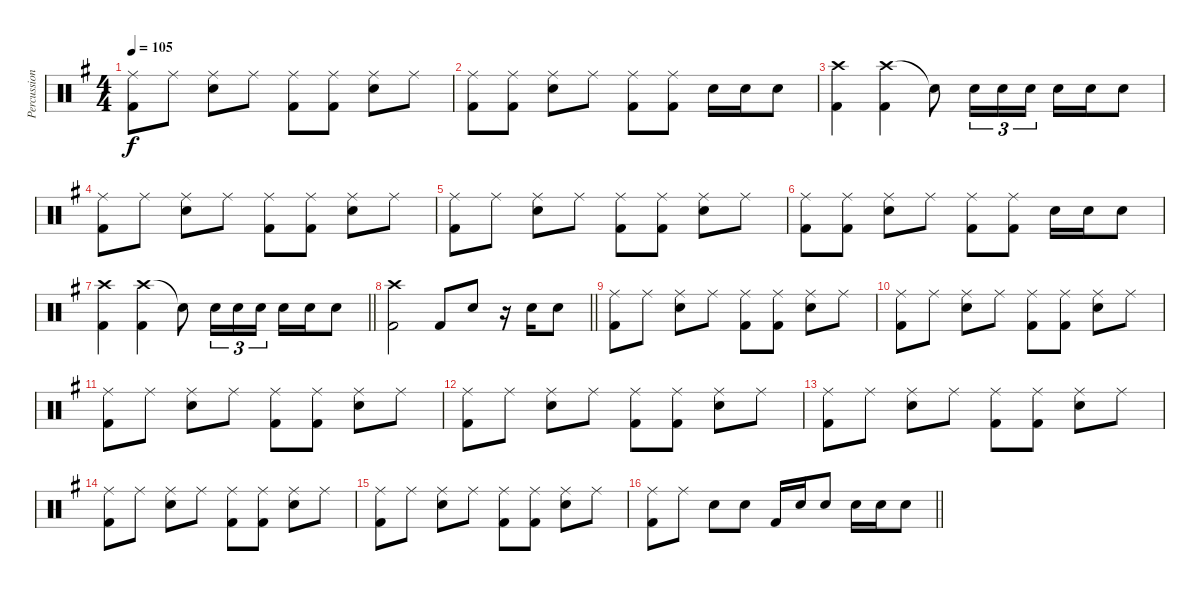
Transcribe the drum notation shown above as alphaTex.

\track ("Percussion" "Percussion") {instrument percussion}
\staff {score}
\articulation defaults
\ts (4 4)
\tempo 105
\clef neutral
\ks g
("Ride (middle)" "Kick (hit) 2").8{dy f} "Ride (middle)".8 ("Ride (middle)" "Snare (hit) 2").8 "Ride (middle)".8 ("Ride (middle)" "Kick (hit) 2").8 ("Ride (middle)" "Kick (hit) 2").8 ("Ride (middle)" "Snare (hit) 2").8 "Ride (middle)".8 |
("Ride (middle)" "Kick (hit) 2").8 ("Ride (middle)" "Kick (hit) 2").8 ("Ride (middle)" "Snare (hit) 2").8 "Ride (middle)".8 ("Ride (middle)" "Kick (hit) 2").8 ("Ride (middle)" "Kick (hit) 2").8 "Snare (hit) 2".16 "Snare (hit) 2".16 "Snare (hit) 2".8 |
("Crash high (hit)" "Kick (hit) 2").4 ("Crash high (hit)" "Kick (hit) 2").4 "Snare (hit)"{t}.8 "Snare (hit) 2".16{tu (3 2)} "Snare (hit) 2".16{tu (3 2)} "Snare (hit) 2".16{tu (3 2)} "Snare (hit) 2".16 "Snare (hit) 2".16 "Snare (hit) 2".8 |
("Ride (middle)" "Kick (hit) 2").8 "Ride (middle)".8 ("Ride (middle)" "Snare (hit) 2").8 "Ride (middle)".8 ("Ride (middle)" "Kick (hit) 2").8 ("Ride (middle)" "Kick (hit) 2").8 ("Ride (middle)" "Snare (hit) 2").8 "Ride (middle)".8 |
("Ride (middle)" "Kick (hit) 2").8 "Ride (middle)".8 ("Ride (middle)" "Snare (hit) 2").8 "Ride (middle)".8 ("Ride (middle)" "Kick (hit) 2").8 ("Ride (middle)" "Kick (hit) 2").8 ("Ride (middle)" "Snare (hit) 2").8 "Ride (middle)".8 |
("Ride (middle)" "Kick (hit) 2").8 ("Ride (middle)" "Kick (hit) 2").8 ("Ride (middle)" "Snare (hit) 2").8 "Ride (middle)".8 ("Ride (middle)" "Kick (hit) 2").8 ("Ride (middle)" "Kick (hit) 2").8 "Snare (hit) 2".16 "Snare (hit) 2".16 "Snare (hit) 2".8 |
\barLineRight lightlight
("Crash high (hit)" "Kick (hit) 2").4 ("Crash high (hit)" "Kick (hit) 2").4 "Snare (hit)"{t}.8 "Snare (hit) 2".16{tu (3 2)} "Snare (hit) 2".16{tu (3 2)} "Snare (hit) 2".16{tu (3 2)} "Snare (hit) 2".16 "Snare (hit) 2".16 "Snare (hit) 2".8 |
\barLineRight lightlight
("Crash high (hit)" "Kick (hit) 2").2 "Kick (hit) 2".8 "Snare (hit) 2".8 r.16 "Snare (hit) 2".16 "Snare (hit) 2".8 |
("Ride (middle)" "Kick (hit) 2").8 "Ride (middle)".8 ("Ride (middle)" "Snare (hit) 2").8 "Ride (middle)".8 ("Ride (middle)" "Kick (hit) 2").8 ("Ride (middle)" "Kick (hit) 2").8 ("Ride (middle)" "Snare (hit) 2").8 "Ride (middle)".8 |
("Ride (middle)" "Kick (hit) 2").8 "Ride (middle)".8 ("Ride (middle)" "Snare (hit) 2").8 "Ride (middle)".8 ("Ride (middle)" "Kick (hit) 2").8 ("Ride (middle)" "Kick (hit) 2").8 ("Ride (middle)" "Snare (hit) 2").8 "Ride (middle)".8 |
("Ride (middle)" "Kick (hit) 2").8 "Ride (middle)".8 ("Ride (middle)" "Snare (hit) 2").8 "Ride (middle)".8 ("Ride (middle)" "Kick (hit) 2").8 ("Ride (middle)" "Kick (hit) 2").8 ("Ride (middle)" "Snare (hit) 2").8 "Ride (middle)".8 |
("Ride (middle)" "Kick (hit) 2").8 "Ride (middle)".8 ("Ride (middle)" "Snare (hit) 2").8 "Ride (middle)".8 ("Ride (middle)" "Kick (hit) 2").8 ("Ride (middle)" "Kick (hit) 2").8 ("Ride (middle)" "Snare (hit) 2").8 "Ride (middle)".8 |
("Ride (middle)" "Kick (hit) 2").8 "Ride (middle)".8 ("Ride (middle)" "Snare (hit) 2").8 "Ride (middle)".8 ("Ride (middle)" "Kick (hit) 2").8 ("Ride (middle)" "Kick (hit) 2").8 ("Ride (middle)" "Snare (hit) 2").8 "Ride (middle)".8 |
("Ride (middle)" "Kick (hit) 2").8 "Ride (middle)".8 ("Ride (middle)" "Snare (hit) 2").8 "Ride (middle)".8 ("Ride (middle)" "Kick (hit) 2").8 ("Ride (middle)" "Kick (hit) 2").8 ("Ride (middle)" "Snare (hit) 2").8 "Ride (middle)".8 |
("Ride (middle)" "Kick (hit) 2").8 "Ride (middle)".8 ("Ride (middle)" "Snare (hit) 2").8 "Ride (middle)".8 ("Ride (middle)" "Kick (hit) 2").8 ("Ride (middle)" "Kick (hit) 2").8 ("Ride (middle)" "Snare (hit) 2").8 "Ride (middle)".8 |
\barLineRight lightlight
("Ride (middle)" "Kick (hit) 2").8 "Ride (middle)".8 "Snare (hit) 2".8 "Snare (hit) 2".8 "Kick (hit) 2".16 "Snare (hit) 2".16 "Snare (hit) 2".8 "Snare (hit) 2".16 "Snare (hit) 2".16 "Snare (hit) 2".8
